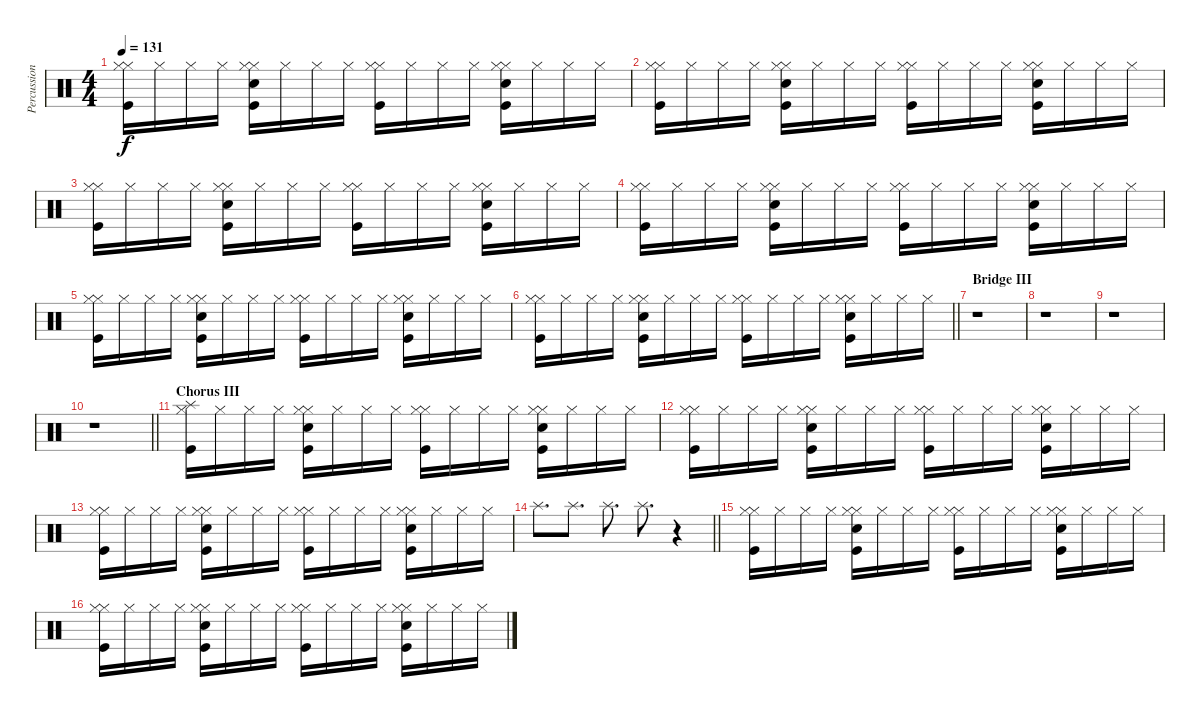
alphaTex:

\track ("Percussion I" "Percussion") {instrument percussion}
\staff {score}
\articulation defaults
\ts (4 4)
\tempo 131
\clef neutral
\ks c
("Hi-Hat (closed)" "Hi-Hat (closed)" "Kick (hit)").16{dy f} "Hi-Hat (closed)".16 "Hi-Hat (closed)".16 "Hi-Hat (closed)".16 ("Hi-Hat (closed)" "Hand Clap (hit)" "Hi-Hat (closed)" "Kick (hit)").16 "Hi-Hat (closed)".16 "Hi-Hat (closed)".16 "Hi-Hat (closed)".16 ("Hi-Hat (closed)" "Hi-Hat (closed)" "Kick (hit)").16 "Hi-Hat (closed)".16 "Hi-Hat (closed)".16 "Hi-Hat (closed)".16 ("Hi-Hat (closed)" "Hand Clap (hit)" "Hi-Hat (closed)" "Kick (hit)").16 "Hi-Hat (closed)".16 "Hi-Hat (closed)".16 "Hi-Hat (closed)".16 |
("Hi-Hat (closed)" "Hi-Hat (closed)" "Kick (hit)").16 "Hi-Hat (closed)".16 "Hi-Hat (closed)".16 "Hi-Hat (closed)".16 ("Hi-Hat (closed)" "Hand Clap (hit)" "Hi-Hat (closed)" "Kick (hit)").16 "Hi-Hat (closed)".16 "Hi-Hat (closed)".16 "Hi-Hat (closed)".16 ("Hi-Hat (closed)" "Hi-Hat (closed)" "Kick (hit)").16 "Hi-Hat (closed)".16 "Hi-Hat (closed)".16 "Hi-Hat (closed)".16 ("Hi-Hat (closed)" "Hand Clap (hit)" "Hi-Hat (closed)" "Kick (hit)").16 "Hi-Hat (closed)".16 "Hi-Hat (closed)".16 "Hi-Hat (closed)".16 |
("Hi-Hat (closed)" "Hi-Hat (closed)" "Kick (hit)").16 "Hi-Hat (closed)".16 "Hi-Hat (closed)".16 "Hi-Hat (closed)".16 ("Hi-Hat (closed)" "Hand Clap (hit)" "Hi-Hat (closed)" "Kick (hit)").16 "Hi-Hat (closed)".16 "Hi-Hat (closed)".16 "Hi-Hat (closed)".16 ("Hi-Hat (closed)" "Hi-Hat (closed)" "Kick (hit)").16 "Hi-Hat (closed)".16 "Hi-Hat (closed)".16 "Hi-Hat (closed)".16 ("Hi-Hat (closed)" "Hand Clap (hit)" "Hi-Hat (closed)" "Kick (hit)").16 "Hi-Hat (closed)".16 "Hi-Hat (closed)".16 "Hi-Hat (closed)".16 |
("Hi-Hat (closed)" "Hi-Hat (closed)" "Kick (hit)").16 "Hi-Hat (closed)".16 "Hi-Hat (closed)".16 "Hi-Hat (closed)".16 ("Hi-Hat (closed)" "Hand Clap (hit)" "Hi-Hat (closed)" "Kick (hit)").16 "Hi-Hat (closed)".16 "Hi-Hat (closed)".16 "Hi-Hat (closed)".16 ("Hi-Hat (closed)" "Hi-Hat (closed)" "Kick (hit)").16 "Hi-Hat (closed)".16 "Hi-Hat (closed)".16 "Hi-Hat (closed)".16 ("Hi-Hat (closed)" "Hand Clap (hit)" "Hi-Hat (closed)" "Kick (hit)").16 "Hi-Hat (closed)".16 "Hi-Hat (closed)".16 "Hi-Hat (closed)".16 |
("Hi-Hat (closed)" "Hi-Hat (closed)" "Kick (hit)").16 "Hi-Hat (closed)".16 "Hi-Hat (closed)".16 "Hi-Hat (closed)".16 ("Hi-Hat (closed)" "Hand Clap (hit)" "Hi-Hat (closed)" "Kick (hit)").16 "Hi-Hat (closed)".16 "Hi-Hat (closed)".16 "Hi-Hat (closed)".16 ("Hi-Hat (closed)" "Hi-Hat (closed)" "Kick (hit)").16 "Hi-Hat (closed)".16 "Hi-Hat (closed)".16 "Hi-Hat (closed)".16 ("Hi-Hat (closed)" "Hand Clap (hit)" "Hi-Hat (closed)" "Kick (hit)").16 "Hi-Hat (closed)".16 "Hi-Hat (closed)".16 "Hi-Hat (closed)".16 |
\barLineRight lightlight
("Hi-Hat (closed)" "Hi-Hat (closed)" "Kick (hit)").16 "Hi-Hat (closed)".16 "Hi-Hat (closed)".16 "Hi-Hat (closed)".16 ("Hi-Hat (closed)" "Hand Clap (hit)" "Hi-Hat (closed)" "Kick (hit)").16 "Hi-Hat (closed)".16 "Hi-Hat (closed)".16 "Hi-Hat (closed)".16 ("Hi-Hat (closed)" "Hi-Hat (closed)" "Kick (hit)").16 "Hi-Hat (closed)".16 "Hi-Hat (closed)".16 "Hi-Hat (closed)".16 ("Hi-Hat (closed)" "Hand Clap (hit)" "Hi-Hat (closed)" "Kick (hit)").16 "Hi-Hat (closed)".16 "Hi-Hat (closed)".16 "Hi-Hat (closed)".16 |
\section ("" "Bridge III")
r.1 |
r.1 |
r.1 |
\barLineRight lightlight
r.1 |
\section ("" "Chorus III")
("Splash (hit)" "Hi-Hat (closed)" "Kick (hit)").16 "Hi-Hat (closed)".16 "Hi-Hat (closed)".16 "Hi-Hat (closed)".16 ("Hi-Hat (closed)" "Hand Clap (hit)" "Hi-Hat (closed)" "Kick (hit)").16 "Hi-Hat (closed)".16 "Hi-Hat (closed)".16 "Hi-Hat (closed)".16 ("Hi-Hat (closed)" "Hi-Hat (closed)" "Kick (hit)").16 "Hi-Hat (closed)".16 "Hi-Hat (closed)".16 "Hi-Hat (closed)".16 ("Hi-Hat (closed)" "Hand Clap (hit)" "Hi-Hat (closed)" "Kick (hit)").16 "Hi-Hat (closed)".16 "Hi-Hat (closed)".16 "Hi-Hat (closed)".16 |
("Hi-Hat (closed)" "Hi-Hat (closed)" "Kick (hit)").16 "Hi-Hat (closed)".16 "Hi-Hat (closed)".16 "Hi-Hat (closed)".16 ("Hi-Hat (closed)" "Hand Clap (hit)" "Hi-Hat (closed)" "Kick (hit)").16 "Hi-Hat (closed)".16 "Hi-Hat (closed)".16 "Hi-Hat (closed)".16 ("Hi-Hat (closed)" "Hi-Hat (closed)" "Kick (hit)").16 "Hi-Hat (closed)".16 "Hi-Hat (closed)".16 "Hi-Hat (closed)".16 ("Hi-Hat (closed)" "Hand Clap (hit)" "Hi-Hat (closed)" "Kick (hit)").16 "Hi-Hat (closed)".16 "Hi-Hat (closed)".16 "Hi-Hat (closed)".16 |
("Hi-Hat (closed)" "Hi-Hat (closed)" "Kick (hit)").16 "Hi-Hat (closed)".16 "Hi-Hat (closed)".16 "Hi-Hat (closed)".16 ("Hi-Hat (closed)" "Hand Clap (hit)" "Hi-Hat (closed)" "Kick (hit)").16 "Hi-Hat (closed)".16 "Hi-Hat (closed)".16 "Hi-Hat (closed)".16 ("Hi-Hat (closed)" "Hi-Hat (closed)" "Kick (hit)").16 "Hi-Hat (closed)".16 "Hi-Hat (closed)".16 "Hi-Hat (closed)".16 ("Hi-Hat (closed)" "Hand Clap (hit)" "Hi-Hat (closed)" "Kick (hit)").16 "Hi-Hat (closed)".16 "Hi-Hat (closed)".16 "Hi-Hat (closed)".16 |
\barLineRight lightlight "Splash (hit)".8{d} "Splash (hit)".8{d} "Splash (hit)".8{d} "Splash (hit)".8{d}
r.4 |
\section ("" "")
("Hi-Hat (closed)" "Hi-Hat (closed)" "Kick (hit)").16 "Hi-Hat (closed)".16 "Hi-Hat (closed)".16 "Hi-Hat (closed)".16 ("Hi-Hat (closed)" "Hand Clap (hit)" "Hi-Hat (closed)" "Kick (hit)").16 "Hi-Hat (closed)".16 "Hi-Hat (closed)".16 "Hi-Hat (closed)".16 ("Hi-Hat (closed)" "Hi-Hat (closed)" "Kick (hit)").16 "Hi-Hat (closed)".16 "Hi-Hat (closed)".16 "Hi-Hat (closed)".16 ("Hi-Hat (closed)" "Hand Clap (hit)" "Hi-Hat (closed)" "Kick (hit)").16 "Hi-Hat (closed)".16 "Hi-Hat (closed)".16 "Hi-Hat (closed)".16 |
("Hi-Hat (closed)" "Hi-Hat (closed)" "Kick (hit)").16 "Hi-Hat (closed)".16 "Hi-Hat (closed)".16 "Hi-Hat (closed)".16 ("Hi-Hat (closed)" "Hand Clap (hit)" "Hi-Hat (closed)" "Kick (hit)").16 "Hi-Hat (closed)".16 "Hi-Hat (closed)".16 "Hi-Hat (closed)".16 ("Hi-Hat (closed)" "Hi-Hat (closed)" "Kick (hit)").16 "Hi-Hat (closed)".16 "Hi-Hat (closed)".16 "Hi-Hat (closed)".16 ("Hi-Hat (closed)" "Hand Clap (hit)" "Hi-Hat (closed)" "Kick (hit)").16 "Hi-Hat (closed)".16 "Hi-Hat (closed)".16 "Hi-Hat (closed)".16
